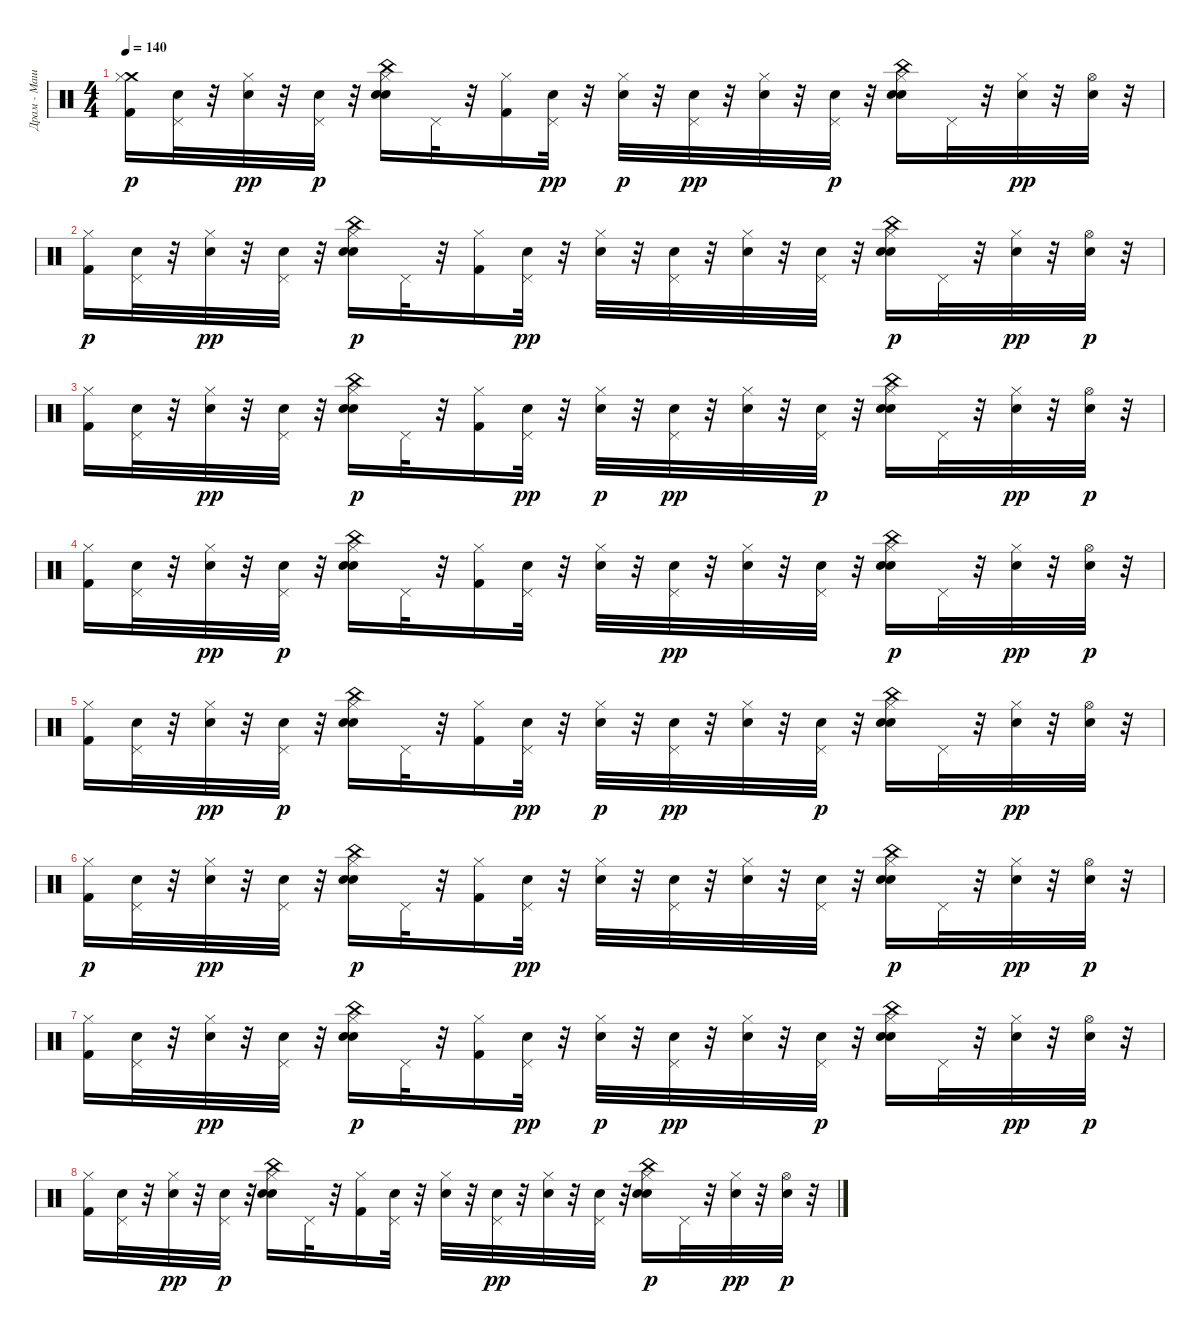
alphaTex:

\track ("Драм - Машина" "Драм - Маш") {instrument percussion}
\staff {score}
\articulation defaults
\ts (4 4)
\tempo 140
\clef neutral
\ks c
("Crash medium (hit)" "Kick (hit) 2" "Hi-Hat (closed)").16{dy p} ("Snare (hit) 2" "Pedal Hi-Hat (hit)").32 r.32 ("Hi-Hat (closed)" "Snare (hit) 2").32{dy pp} r.32 ("Snare (hit) 2" "Pedal Hi-Hat (hit)").32{dy p} r.32 ("Electric Snare (hit)" "China (hit)" "Hand Clap (hit)" "Hi-Hat (closed)").16 "Pedal Hi-Hat (hit)".32 r.32 ("Hi-Hat (closed)" "Kick (hit) 2").16 ("Pedal Hi-Hat (hit)" "Snare (hit) 2").32{dy pp} r.32 ("Snare (hit) 2" "Hi-Hat (closed)").32{dy p} r.32 ("Pedal Hi-Hat (hit)" "Snare (hit) 2").32{dy pp} r.32 ("Hi-Hat (closed)" "Snare (hit) 2").32 r.32 ("Snare (hit) 2" "Pedal Hi-Hat (hit)").32{dy p} r.32 ("Electric Snare (hit)" "Hand Clap (hit)" "China (hit)" "Hi-Hat (closed)").16 "Pedal Hi-Hat (hit)".32 r.32 ("Hi-Hat (closed)" "Snare (hit) 2").32{dy pp} r.32 ("Hi-Hat (open)" "Snare (hit) 2").32 r.32 |
("Hi-Hat (closed)" "Kick (hit) 2").16{dy p} ("Snare (hit) 2" "Pedal Hi-Hat (hit)").32 r.32 ("Hi-Hat (closed)" "Snare (hit) 2").32{dy pp} r.32 ("Pedal Hi-Hat (hit)" "Snare (hit) 2").32 r.32 ("Hi-Hat (closed)" "Electric Snare (hit)" "Hand Clap (hit)" "China (hit)").16{dy p} "Pedal Hi-Hat (hit)".32 r.32 ("Hi-Hat (closed)" "Kick (hit) 2").16 ("Pedal Hi-Hat (hit)" "Snare (hit) 2").32{dy pp} r.32 ("Hi-Hat (closed)" "Snare (hit) 2").32 r.32 ("Pedal Hi-Hat (hit)" "Snare (hit) 2").32 r.32 ("Hi-Hat (closed)" "Snare (hit) 2").32 r.32 ("Pedal Hi-Hat (hit)" "Snare (hit) 2").32 r.32 ("Hi-Hat (closed)" "Electric Snare (hit)" "Hand Clap (hit)" "China (hit)").16{dy p} "Pedal Hi-Hat (hit)".32 r.32 ("Hi-Hat (closed)" "Snare (hit) 2").32{dy pp} r.32 ("Snare (hit) 2" "Hi-Hat (open)").32{dy p} r.32 |
("Kick (hit) 2" "Hi-Hat (closed)").16 ("Snare (hit) 2" "Pedal Hi-Hat (hit)").32 r.32 ("Hi-Hat (closed)" "Snare (hit) 2").32{dy pp} r.32 ("Pedal Hi-Hat (hit)" "Snare (hit) 2").32 r.32 ("Hi-Hat (closed)" "Electric Snare (hit)" "Hand Clap (hit)" "China (hit)").16{dy p} "Pedal Hi-Hat (hit)".32 r.32 ("Hi-Hat (closed)" "Kick (hit) 2").16 ("Pedal Hi-Hat (hit)" "Snare (hit) 2").32{dy pp} r.32 ("Snare (hit) 2" "Hi-Hat (closed)").32{dy p} r.32 ("Pedal Hi-Hat (hit)" "Snare (hit) 2").32{dy pp} r.32 ("Hi-Hat (closed)" "Snare (hit) 2").32 r.32 ("Snare (hit) 2" "Pedal Hi-Hat (hit)").32{dy p} r.32 ("Electric Snare (hit)" "China (hit)" "Hand Clap (hit)" "Hi-Hat (closed)").16 "Pedal Hi-Hat (hit)".32 r.32 ("Hi-Hat (closed)" "Snare (hit) 2").32{dy pp} r.32 ("Snare (hit) 2" "Hi-Hat (open)").32{dy p} r.32 |
("Kick (hit) 2" "Hi-Hat (closed)").16 ("Snare (hit) 2" "Pedal Hi-Hat (hit)").32 r.32 ("Hi-Hat (closed)" "Snare (hit) 2").32{dy pp} r.32 ("Snare (hit) 2" "Pedal Hi-Hat (hit)").32{dy p} r.32 ("Electric Snare (hit)" "Hand Clap (hit)" "China (hit)" "Hi-Hat (closed)").16 "Pedal Hi-Hat (hit)".32 r.32 ("Hi-Hat (closed)" "Kick (hit) 2").16 ("Snare (hit) 2" "Pedal Hi-Hat (hit)").32 r.32 ("Snare (hit) 2" "Hi-Hat (closed)").32 r.32 ("Pedal Hi-Hat (hit)" "Snare (hit) 2").32{dy pp} r.32 ("Hi-Hat (closed)" "Snare (hit) 2").32 r.32 ("Pedal Hi-Hat (hit)" "Snare (hit) 2").32 r.32 ("Hi-Hat (closed)" "Electric Snare (hit)" "Hand Clap (hit)" "China (hit)").16{dy p} "Pedal Hi-Hat (hit)".32 r.32 ("Hi-Hat (closed)" "Snare (hit) 2").32{dy pp} r.32 ("Snare (hit) 2" "Hi-Hat (open)").32{dy p} r.32 |
("Kick (hit) 2" "Hi-Hat (closed)").16 ("Snare (hit) 2" "Pedal Hi-Hat (hit)").32 r.32 ("Hi-Hat (closed)" "Snare (hit) 2").32{dy pp} r.32 ("Snare (hit) 2" "Pedal Hi-Hat (hit)").32{dy p} r.32 ("Electric Snare (hit)" "China (hit)" "Hand Clap (hit)" "Hi-Hat (closed)").16 "Pedal Hi-Hat (hit)".32 r.32 ("Hi-Hat (closed)" "Kick (hit) 2").16 ("Pedal Hi-Hat (hit)" "Snare (hit) 2").32{dy pp} r.32 ("Snare (hit) 2" "Hi-Hat (closed)").32{dy p} r.32 ("Pedal Hi-Hat (hit)" "Snare (hit) 2").32{dy pp} r.32 ("Hi-Hat (closed)" "Snare (hit) 2").32 r.32 ("Snare (hit) 2" "Pedal Hi-Hat (hit)").32{dy p} r.32 ("Electric Snare (hit)" "Hand Clap (hit)" "China (hit)" "Hi-Hat (closed)").16 "Pedal Hi-Hat (hit)".32 r.32 ("Hi-Hat (closed)" "Snare (hit) 2").32{dy pp} r.32 ("Hi-Hat (open)" "Snare (hit) 2").32 r.32 |
("Hi-Hat (closed)" "Kick (hit) 2").16{dy p} ("Snare (hit) 2" "Pedal Hi-Hat (hit)").32 r.32 ("Hi-Hat (closed)" "Snare (hit) 2").32{dy pp} r.32 ("Pedal Hi-Hat (hit)" "Snare (hit) 2").32 r.32 ("Hi-Hat (closed)" "Electric Snare (hit)" "Hand Clap (hit)" "China (hit)").16{dy p} "Pedal Hi-Hat (hit)".32 r.32 ("Hi-Hat (closed)" "Kick (hit) 2").16 ("Pedal Hi-Hat (hit)" "Snare (hit) 2").32{dy pp} r.32 ("Hi-Hat (closed)" "Snare (hit) 2").32 r.32 ("Pedal Hi-Hat (hit)" "Snare (hit) 2").32 r.32 ("Hi-Hat (closed)" "Snare (hit) 2").32 r.32 ("Pedal Hi-Hat (hit)" "Snare (hit) 2").32 r.32 ("Hi-Hat (closed)" "Electric Snare (hit)" "Hand Clap (hit)" "China (hit)").16{dy p} "Pedal Hi-Hat (hit)".32 r.32 ("Hi-Hat (closed)" "Snare (hit) 2").32{dy pp} r.32 ("Snare (hit) 2" "Hi-Hat (open)").32{dy p} r.32 |
("Kick (hit) 2" "Hi-Hat (closed)").16 ("Snare (hit) 2" "Pedal Hi-Hat (hit)").32 r.32 ("Hi-Hat (closed)" "Snare (hit) 2").32{dy pp} r.32 ("Pedal Hi-Hat (hit)" "Snare (hit) 2").32 r.32 ("Hi-Hat (closed)" "Electric Snare (hit)" "Hand Clap (hit)" "China (hit)").16{dy p} "Pedal Hi-Hat (hit)".32 r.32 ("Hi-Hat (closed)" "Kick (hit) 2").16 ("Pedal Hi-Hat (hit)" "Snare (hit) 2").32{dy pp} r.32 ("Snare (hit) 2" "Hi-Hat (closed)").32{dy p} r.32 ("Pedal Hi-Hat (hit)" "Snare (hit) 2").32{dy pp} r.32 ("Hi-Hat (closed)" "Snare (hit) 2").32 r.32 ("Snare (hit) 2" "Pedal Hi-Hat (hit)").32{dy p} r.32 ("Electric Snare (hit)" "China (hit)" "Hand Clap (hit)" "Hi-Hat (closed)").16 "Pedal Hi-Hat (hit)".32 r.32 ("Hi-Hat (closed)" "Snare (hit) 2").32{dy pp} r.32 ("Snare (hit) 2" "Hi-Hat (open)").32{dy p} r.32 |
("Kick (hit) 2" "Hi-Hat (closed)").16 ("Snare (hit) 2" "Pedal Hi-Hat (hit)").32 r.32 ("Hi-Hat (closed)" "Snare (hit) 2").32{dy pp} r.32 ("Snare (hit) 2" "Pedal Hi-Hat (hit)").32{dy p} r.32 ("Electric Snare (hit)" "Hand Clap (hit)" "China (hit)" "Hi-Hat (closed)").16 "Pedal Hi-Hat (hit)".32 r.32 ("Hi-Hat (closed)" "Kick (hit) 2").16 ("Snare (hit) 2" "Pedal Hi-Hat (hit)").32 r.32 ("Snare (hit) 2" "Hi-Hat (closed)").32 r.32 ("Pedal Hi-Hat (hit)" "Snare (hit) 2").32{dy pp} r.32 ("Hi-Hat (closed)" "Snare (hit) 2").32 r.32 ("Pedal Hi-Hat (hit)" "Snare (hit) 2").32 r.32 ("Hi-Hat (closed)" "Electric Snare (hit)" "Hand Clap (hit)" "China (hit)").16{dy p} "Pedal Hi-Hat (hit)".32 r.32 ("Hi-Hat (closed)" "Snare (hit) 2").32{dy pp} r.32 ("Snare (hit) 2" "Hi-Hat (open)").32{dy p} r.32
